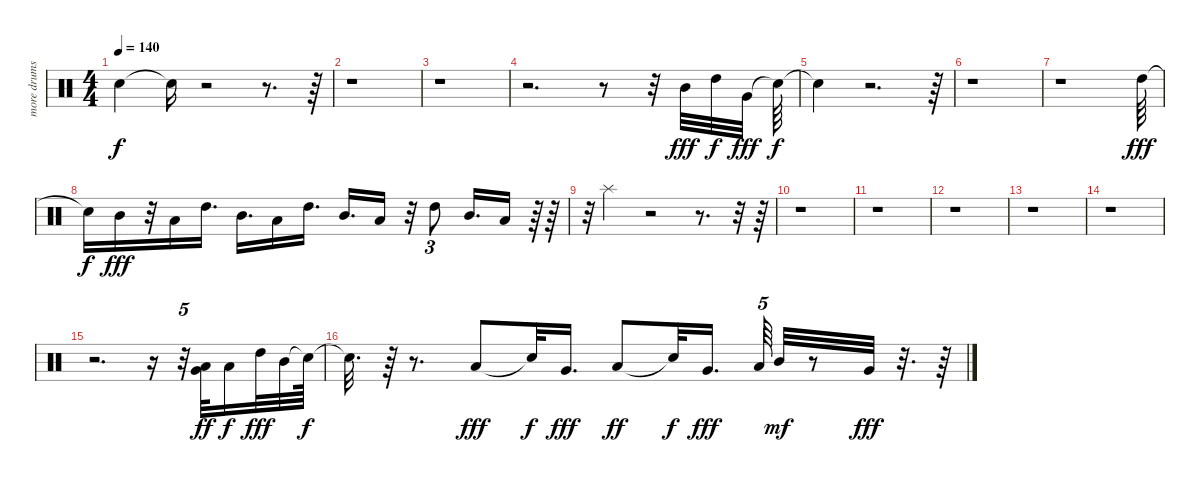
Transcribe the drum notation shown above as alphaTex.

\track ("more drums" "more drums") {instrument percussion}
\staff {score}
\articulation defaults
\ts (4 4)
\tempo 140
\clef neutral
\ks c "Snare (hit)"{t}.4{dy f} "Snare (hit)"{t}.16
r.2 r.8{d} r.64 |
r.1 |
r.1 |
r.2{d} r.8 r.32 "Mid Tom (hit)".32{dy fff} "High Tom (hit)".32{dy f} "Very Low Tom (hit)".32{dy fff} "Snare (hit)"{t}.64{dy f} |
"Snare (hit)"{t}.4 r.2{d} r.64 |
r.1 |
r.1 "High Tom (hit)".64{dy fff} |
"Snare (hit)"{t}.16{dy f} "Mid Tom (hit)".16{dy fff} r.32 "Low Tom (hit)".16 "High Tom (hit)".16{d} "Mid Tom (hit)".16{d} "Low Tom (hit)".16 "High Tom (hit)".16{d} "Mid Tom (hit)".16{d} "Low Tom (hit)".16 r.32 "High Tom (hit)".8{tu (3 2)} "Mid Tom (hit)".16{d} "Low Tom (hit)".16 r.64 r.64 |
r.32{tu (5 4)} "Splash (hit)".4 r.2 r.8{d} r.32 r.64 |
r.1 |
r.1 |
r.1 |
r.1 |
r.1 |
r.2{d} r.16 r.32{tu (5 4)} ("Low Floor Tom (hit)" "Very Low Tom (hit)").32{dy ff} "Low Tom (hit)".16{dy f} "High Tom (hit)".32{dy fff} "Mid Tom (hit)".32 "Snare (hit)"{t}.64{dy f} |
"Snare (hit)"{t}.32{d} r.64 r.8{d} "Low Tom (hit)".8{dy fff} "Snare (hit)"{t}.32{dy f} "Very Low Tom (hit)".16{d dy fff} "Low Floor Tom (hit)".8{dy ff} "Snare (hit)"{t}.32{dy f} "Very Low Tom (hit)".16{d dy fff} "Low Tom (hit)".64{tu (5 4)} "Mid Tom (hit)".32{dy mf} r.8 "Very Low Tom (hit)".32{dy fff} r.32{d} r.64
